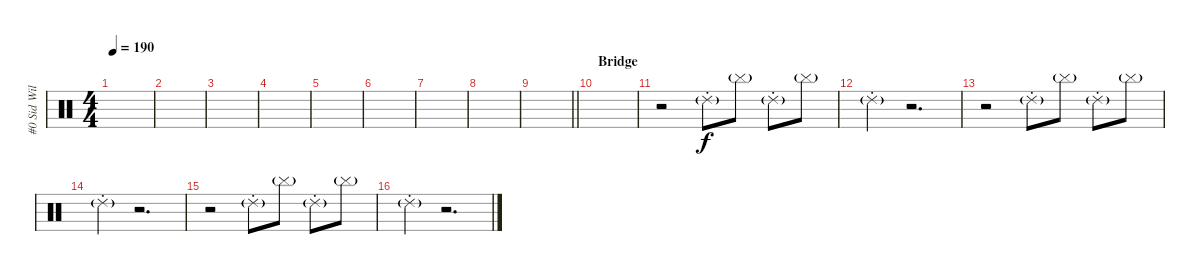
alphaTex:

\track ("#0 Sid Wilson" "#0 Sid Wil") {instrument percussion}
\staff {score}
\articulation defaults
\ts (4 4)
\tempo 190
\clef neutral
\ks c
|
|
|
|
|
|
|
|
\barLineRight lightlight
|
\section ("" "Bridge")
|
r.2 "Ride (choke) 2"{g}.8 "Cymbal (hit)"{g}.8 "Ride (choke) 2"{g}.8 "Cymbal (hit)"{g}.8 |
"Ride (choke) 2"{g}.4 r.2{d} |
r.2 "Ride (choke) 2"{g}.8 "Cymbal (hit)"{g}.8 "Ride (choke) 2"{g}.8 "Cymbal (hit)"{g}.8 |
"Ride (choke) 2"{g}.4 r.2{d} |
r.2 "Ride (choke) 2"{g}.8 "Cymbal (hit)"{g}.8 "Ride (choke) 2"{g}.8 "Cymbal (hit)"{g}.8 |
"Ride (choke) 2"{g}.4 r.2{d}
